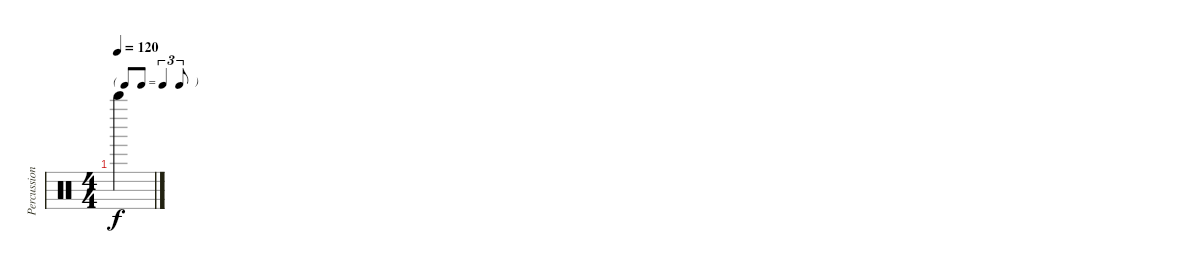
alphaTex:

\track ("Percussions" "Percussion") {instrument percussion}
\staff {score}
\articulation defaults
\ts (4 4)
\tf triplet8th
\tempo 120
\clef neutral
\ks c "Whistle high (hit)".4{dy f}
